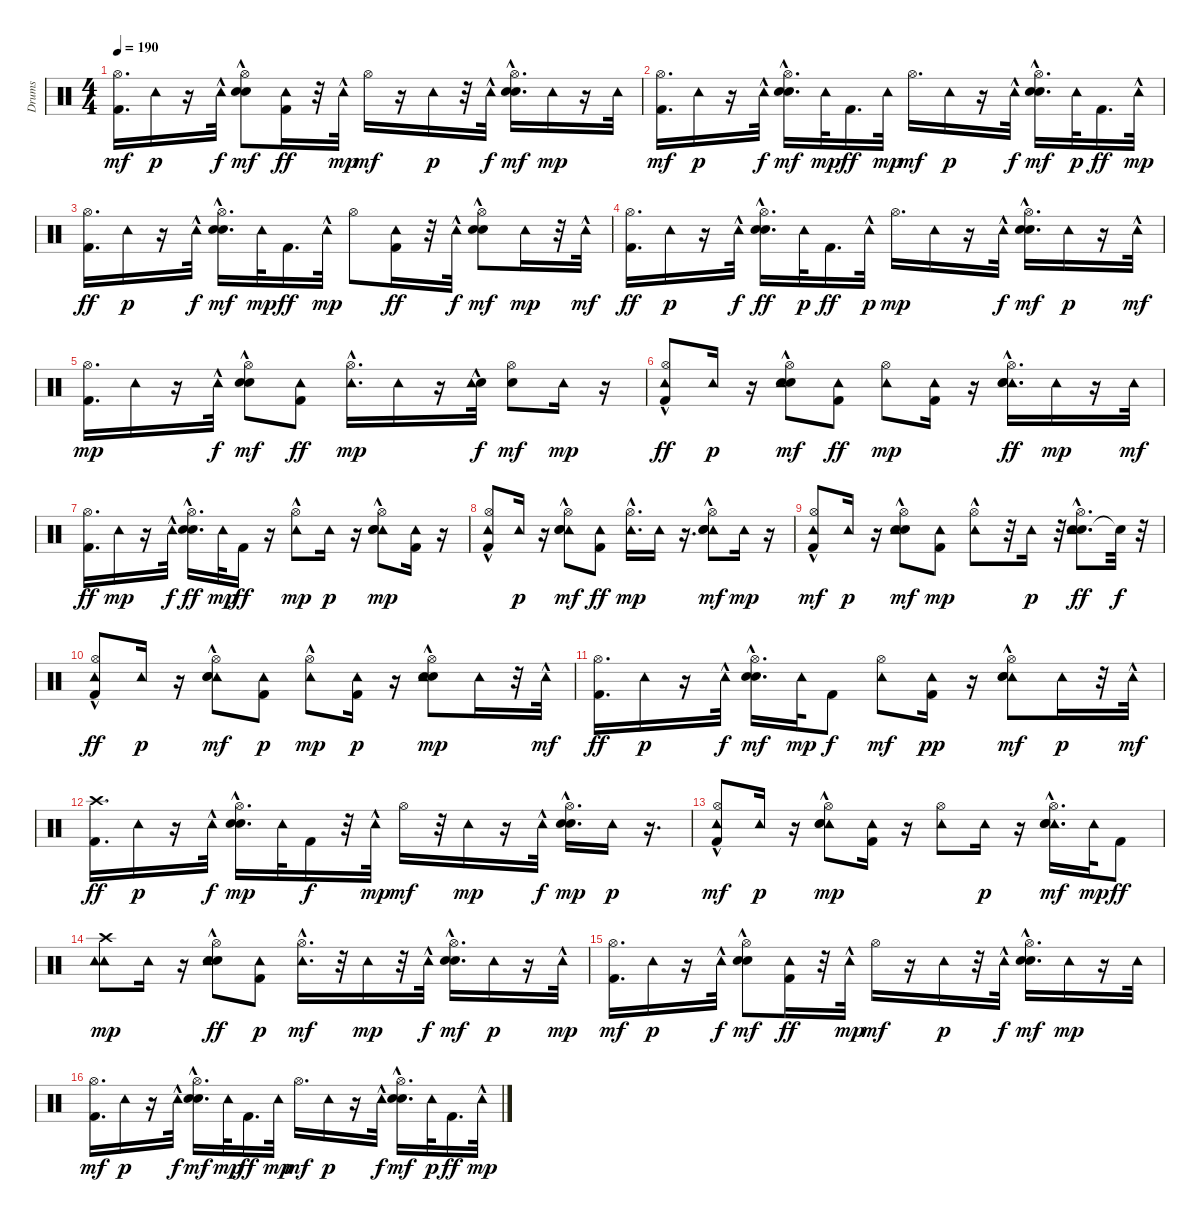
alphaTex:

\track ("Drums" "Drums") {instrument percussion}
\staff {score}
\articulation defaults
\ts (4 4)
\tempo 190
\clef neutral
\ks c
("Kick (hit) 2" "Hi-Hat (open)").16{d dy mf} "Tambourine (hit)".16{dy p} r.16 "Tambourine (hit)"{hac}.32{dy f} ("Hand Clap (hit)"{hac} "Snare (hit) 2" "Hi-Hat (open)").8{dy mf} ("Tambourine (hit)" "Kick (hit) 2").16{dy ff} r.32 "Tambourine (hit)"{hac}.32{dy mp} "Hi-Hat (open)".16{dy mf} r.16 "Tambourine (hit)".16{dy p} r.32 "Tambourine (hit)"{hac}.32{dy f} ("Hand Clap (hit)"{hac} "Snare (hit) 2" "Hi-Hat (open)").16{d dy mf} "Tambourine (hit)".16{dy mp} r.16 "Tambourine (hit)".32 |
("Kick (hit) 2" "Hi-Hat (open)").16{d dy mf} "Tambourine (hit)".16{dy p} r.16 "Tambourine (hit)"{hac}.32{dy f} ("Hand Clap (hit)"{hac} "Snare (hit) 2" "Hi-Hat (open)").16{d dy mf} "Tambourine (hit)".32{dy mp} "Kick (hit) 2".16{d dy ff} "Tambourine (hit)".32{dy mp} "Hi-Hat (open)".16{d dy mf} "Tambourine (hit)".16{dy p} r.16 "Tambourine (hit)"{hac}.32{dy f} ("Hand Clap (hit)"{hac} "Snare (hit) 2" "Hi-Hat (open)").16{d dy mf} "Tambourine (hit)".32{dy p} "Kick (hit) 2".16{d dy ff} "Tambourine (hit)"{hac}.32{dy mp} |
("Hi-Hat (open)" "Kick (hit) 2").16{d dy ff} "Tambourine (hit)".16{dy p} r.16 "Tambourine (hit)"{hac}.32{dy f} ("Hand Clap (hit)"{hac} "Snare (hit) 2" "Hi-Hat (open)").16{d dy mf} "Tambourine (hit)".32{dy mp} "Kick (hit) 2".16{d dy ff} "Tambourine (hit)"{hac}.32{dy mp} "Hi-Hat (open)".8 ("Tambourine (hit)" "Kick (hit) 2").16{dy ff} r.32 "Tambourine (hit)"{hac}.32{dy f} ("Hand Clap (hit)"{hac} "Snare (hit) 2" "Hi-Hat (open)").8{dy mf} "Tambourine (hit)".16{dy mp} r.32 "Tambourine (hit)"{hac}.32{dy mf} |
("Hi-Hat (open)" "Kick (hit) 2").16{d dy ff} "Tambourine (hit)".16{dy p} r.16 "Tambourine (hit)"{hac}.32{dy f} ("Hand Clap (hit)"{hac} "Hi-Hat (open)" "Snare (hit) 2").16{d dy ff} "Tambourine (hit)".32{dy p} "Kick (hit) 2".16{d dy ff} "Tambourine (hit)"{hac}.32{dy p} "Hi-Hat (open)".16{d dy mp} "Tambourine (hit)".16 r.16 "Tambourine (hit)"{hac}.32{dy f} ("Hand Clap (hit)"{hac} "Snare (hit) 2" "Hi-Hat (open)").16{d dy mf} "Tambourine (hit)".16{dy p} r.16 "Tambourine (hit)"{hac}.32{dy mf} |
("Kick (hit) 2" "Hi-Hat (open)").16{d dy mp} "Tambourine (hit)".16 r.16 "Tambourine (hit)"{hac}.32{dy f} ("Hand Clap (hit)"{hac} "Snare (hit) 2" "Hi-Hat (open)").8{dy mf} ("Tambourine (hit)" "Kick (hit) 2").8{dy ff} ("Tambourine (hit)"{hac} "Hi-Hat (open)").16{d dy mp} "Tambourine (hit)".16 r.16 ("Hand Clap (hit)"{hac} "Tambourine (hit)"{hac}).32{dy f} ("Snare (hit) 2" "Hi-Hat (open)").8{dy mf} "Tambourine (hit)".16{dy mp} r.16 |
("Tambourine (hit)"{hac} "Hi-Hat (open)" "Kick (hit) 2").8{dy ff} "Tambourine (hit)".16{dy p} r.16 ("Hand Clap (hit)"{hac} "Hi-Hat (open)" "Tambourine (hit)"{hac} "Snare (hit) 2").8{dy mf} ("Tambourine (hit)" "Kick (hit) 2").8{dy ff} ("Tambourine (hit)" "Hi-Hat (open)").8{dy mp} ("Tambourine (hit)" "Kick (hit) 2").16 r.16 ("Tambourine (hit)"{hac} "Hand Clap (hit)"{hac} "Hi-Hat (open)" "Snare (hit) 2").16{d dy ff} "Tambourine (hit)".16{dy mp} r.16 "Tambourine (hit)".32{dy mf} |
("Hi-Hat (open)" "Kick (hit) 2").16{d dy ff} "Tambourine (hit)".16{dy mp} r.16 "Tambourine (hit)"{hac}.32{dy f} ("Hand Clap (hit)"{hac} "Hi-Hat (open)" "Snare (hit) 2").16{d dy ff} "Tambourine (hit)".32{dy mp} "Kick (hit) 2".16{dy ff} r.16 ("Tambourine (hit)"{hac} "Hi-Hat (open)").8{dy mp} "Tambourine (hit)".16{dy p} r.16 ("Tambourine (hit)"{hac} "Hand Clap (hit)"{hac} "Snare (hit) 2" "Hi-Hat (open)").8{dy mp} ("Kick (hit) 2" "Tambourine (hit)").16 r.16 |
("Tambourine (hit)"{hac} "Kick (hit) 2" "Hi-Hat (open)").8 "Tambourine (hit)".16{dy p} r.16 ("Tambourine (hit)"{hac} "Hand Clap (hit)"{hac} "Snare (hit) 2" "Hi-Hat (open)").8{dy mf} ("Tambourine (hit)" "Kick (hit) 2").8{dy ff} ("Tambourine (hit)"{hac} "Hi-Hat (open)").16{d dy mp} "Tambourine (hit)".16 r.16{d} ("Tambourine (hit)"{hac} "Hand Clap (hit)"{hac} "Snare (hit) 2" "Hi-Hat (open)").8{dy mf} "Tambourine (hit)".16{dy mp} r.16 |
("Tambourine (hit)"{hac} "Kick (hit) 2" "Hi-Hat (open)").8{dy mf} "Tambourine (hit)".16{dy p} r.16 ("Hand Clap (hit)"{hac} "Tambourine (hit)"{hac} "Snare (hit) 2" "Hi-Hat (open)").8{dy mf} ("Kick (hit) 2" "Tambourine (hit)").8{dy mp} ("Hi-Hat (open)" "Tambourine (hit)"{hac}).8 r.32 "Tambourine (hit)".16{dy p} r.32 ("Snare (hit) 2" "Hi-Hat (open)" "Hand Clap (hit)"{hac} "Tambourine (hit)"{hac}).8{d dy ff} "Snare (hit)"{t}.32{dy f} r.32 |
("Hi-Hat (open)" "Tambourine (hit)"{hac} "Kick (hit) 2").8{dy ff} "Tambourine (hit)".16{dy p} r.16 ("Tambourine (hit)"{hac} "Hand Clap (hit)"{hac} "Snare (hit) 2" "Hi-Hat (open)"{hac}).8{dy mf} ("Kick (hit) 2" "Tambourine (hit)").8{dy p} ("Tambourine (hit)"{hac} "Hi-Hat (open)").8{dy mp} ("Kick (hit) 2" "Tambourine (hit)").16{dy p} r.16 ("Hand Clap (hit)"{hac} "Snare (hit) 2" "Hi-Hat (open)" "Tambourine (hit)"{hac}).8{dy mp} "Tambourine (hit)".16 r.32 "Tambourine (hit)"{hac}.32{dy mf} |
("Hi-Hat (open)" "Kick (hit) 2").16{d dy ff} "Tambourine (hit)".16{dy p} r.16 "Tambourine (hit)"{hac}.32{dy f} ("Hand Clap (hit)"{hac} "Snare (hit) 2" "Hi-Hat (open)").16{d dy mf} "Tambourine (hit)".32{dy mp} "Kick (hit) 2".8{dy f} ("Tambourine (hit)" "Hi-Hat (open)").8{dy mf} ("Kick (hit) 2" "Tambourine (hit)").16{dy pp} r.16 ("Tambourine (hit)"{hac} "Snare (hit) 2" "Hand Clap (hit)"{hac} "Hi-Hat (open)").8{dy mf} "Tambourine (hit)".16{dy p} r.32 "Tambourine (hit)"{hac}.32{dy mf} |
("Kick (hit) 2" "Crash high (hit)").16{d dy ff} "Tambourine (hit)".16{dy p} r.16 "Tambourine (hit)"{hac}.32{dy f} ("Hand Clap (hit)"{hac} "Snare (hit) 2" "Hi-Hat (open)").16{d dy mp} "Tambourine (hit)".32 "Kick (hit) 2".16{dy f} r.32 "Tambourine (hit)"{hac}.32{dy mp} "Hi-Hat (open)".16{dy mf} r.32 "Tambourine (hit)".16{dy mp} r.16 "Tambourine (hit)"{hac}.32{dy f} ("Snare (hit) 2" "Hand Clap (hit)"{hac} "Hi-Hat (open)").16{d dy mp} "Tambourine (hit)".16{dy p} r.16{d} |
("Tambourine (hit)"{hac} "Kick (hit) 2" "Hi-Hat (open)").8{dy mf} "Tambourine (hit)".16{dy p} r.16 ("Tambourine (hit)"{hac} "Hand Clap (hit)"{hac} "Snare (hit) 2" "Hi-Hat (open)").8{dy mp} ("Kick (hit) 2" "Tambourine (hit)").16 r.16 ("Hi-Hat (open)" "Tambourine (hit)").8 "Tambourine (hit)".16{dy p} r.16 ("Tambourine (hit)"{hac} "Hand Clap (hit)"{hac} "Snare (hit) 2" "Hi-Hat (open)").16{d dy mf} "Tambourine (hit)".32{dy mp} "Kick (hit) 2".8{dy ff} |
("Tambourine (hit)" "Crash high (hit)" "Tambourine (hit)").8{dy mp} "Tambourine (hit)".16 r.16 ("Snare (hit) 2" "Hi-Hat (open)" "Tambourine (hit)"{hac} "Hand Clap (hit)"{hac}).8{dy ff} ("Kick (hit) 2" "Tambourine (hit)").8{dy p} ("Tambourine (hit)"{hac} "Hi-Hat (open)").16{d dy mf} r.32 "Tambourine (hit)".16{dy mp} r.32 "Tambourine (hit)"{hac}.32{dy f} ("Snare (hit) 2" "Hi-Hat (open)" "Hand Clap (hit)"{hac}).16{d dy mf} "Tambourine (hit)".16{dy p} r.16 "Tambourine (hit)"{hac}.32{dy mp} |
("Kick (hit) 2" "Hi-Hat (open)").16{d dy mf} "Tambourine (hit)".16{dy p} r.16 "Tambourine (hit)"{hac}.32{dy f} ("Hand Clap (hit)"{hac} "Snare (hit) 2" "Hi-Hat (open)").8{dy mf} ("Tambourine (hit)" "Kick (hit) 2").16{dy ff} r.32 "Tambourine (hit)"{hac}.32{dy mp} "Hi-Hat (open)".16{dy mf} r.16 "Tambourine (hit)".16{dy p} r.32 "Tambourine (hit)"{hac}.32{dy f} ("Hand Clap (hit)"{hac} "Snare (hit) 2" "Hi-Hat (open)").16{d dy mf} "Tambourine (hit)".16{dy mp} r.16 "Tambourine (hit)".32 |
("Kick (hit) 2" "Hi-Hat (open)").16{d dy mf} "Tambourine (hit)".16{dy p} r.16 "Tambourine (hit)"{hac}.32{dy f} ("Hand Clap (hit)"{hac} "Snare (hit) 2" "Hi-Hat (open)").16{d dy mf} "Tambourine (hit)".32{dy mp} "Kick (hit) 2".16{d dy ff} "Tambourine (hit)".32{dy mp} "Hi-Hat (open)".16{d dy mf} "Tambourine (hit)".16{dy p} r.16 "Tambourine (hit)"{hac}.32{dy f} ("Hand Clap (hit)"{hac} "Snare (hit) 2" "Hi-Hat (open)").16{d dy mf} "Tambourine (hit)".32{dy p} "Kick (hit) 2".16{d dy ff} "Tambourine (hit)"{hac}.32{dy mp}
